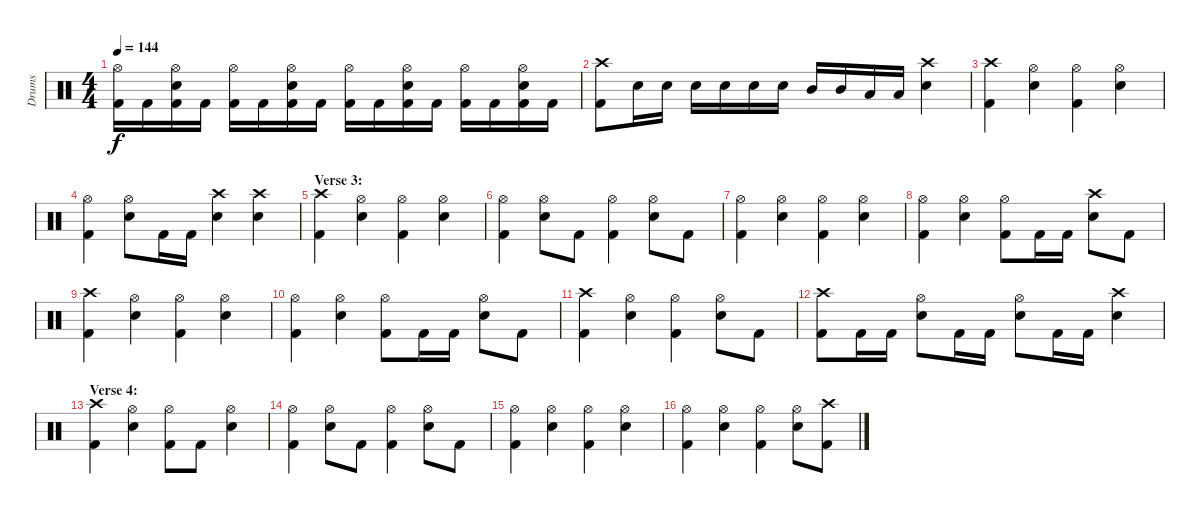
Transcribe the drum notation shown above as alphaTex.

\track ("Drums" "Drums") {instrument percussion}
\staff {score}
\articulation defaults
\ts (4 4)
\tempo 144
\clef neutral
\ks c
("Hi-Hat (open)" "Kick (hit) 2").16{dy f} "Kick (hit) 2".16 ("Hi-Hat (open)" "Snare (hit) 2" "Kick (hit) 2").16 "Kick (hit) 2".16 ("Hi-Hat (open)" "Kick (hit) 2").16 "Kick (hit) 2".16 ("Hi-Hat (open)" "Snare (hit) 2" "Kick (hit) 2").16 "Kick (hit) 2".16 ("Hi-Hat (open)" "Kick (hit) 2").16 "Kick (hit) 2".16 ("Hi-Hat (open)" "Snare (hit) 2" "Kick (hit) 2").16 "Kick (hit) 2".16 ("Hi-Hat (open)" "Kick (hit) 2").16 "Kick (hit) 2".16 ("Hi-Hat (open)" "Snare (hit) 2" "Kick (hit) 2").16 "Kick (hit) 2".16 |
("Crash high (hit)" "Kick (hit) 2").8 "Snare (hit) 2".16 "Snare (hit) 2".16 "Snare (hit) 2".16 "Snare (hit) 2".16 "Snare (hit) 2".16 "Snare (hit) 2".16 "Mid Tom (hit)".16 "Mid Tom (hit)".16 "Low Tom (hit)".16 "Low Tom (hit)".16 ("Crash high (hit)" "Snare (hit) 2").4 |
("Crash high (hit)" "Kick (hit) 2").4 ("Hi-Hat (open)" "Snare (hit) 2").4 ("Hi-Hat (open)" "Kick (hit) 2").4 ("Hi-Hat (open)" "Snare (hit) 2").4 |
("Hi-Hat (open)" "Kick (hit) 2").4 ("Hi-Hat (open)" "Snare (hit) 2").8 "Kick (hit) 2".16 "Kick (hit) 2".16 ("Crash high (hit)" "Snare (hit) 2").4 ("Crash high (hit)" "Snare (hit) 2").4 |
\section ("" "Verse 3:")
("Crash high (hit)" "Kick (hit) 2").4 ("Hi-Hat (open)" "Snare (hit) 2").4 ("Hi-Hat (open)" "Kick (hit) 2").4 ("Hi-Hat (open)" "Snare (hit) 2").4 |
("Hi-Hat (open)" "Kick (hit) 2").4 ("Hi-Hat (open)" "Snare (hit) 2").8 "Kick (hit) 2".8 ("Hi-Hat (open)" "Kick (hit) 2").4 ("Hi-Hat (open)" "Snare (hit) 2").8 "Kick (hit) 2".8 |
("Hi-Hat (open)" "Kick (hit) 2").4 ("Hi-Hat (open)" "Snare (hit) 2").4 ("Hi-Hat (open)" "Kick (hit) 2").4 ("Hi-Hat (open)" "Snare (hit) 2").4 |
("Hi-Hat (open)" "Kick (hit) 2").4 ("Hi-Hat (open)" "Snare (hit) 2").4 ("Hi-Hat (open)" "Kick (hit) 2").8 "Kick (hit) 2".16 "Kick (hit) 2".16 ("Crash high (hit)" "Snare (hit) 2").8 "Kick (hit) 2".8 |
("Crash high (hit)" "Kick (hit) 2").4 ("Hi-Hat (open)" "Snare (hit) 2").4 ("Hi-Hat (open)" "Kick (hit) 2").4 ("Hi-Hat (open)" "Snare (hit) 2").4 |
("Hi-Hat (open)" "Kick (hit) 2").4 ("Hi-Hat (open)" "Snare (hit) 2").4 ("Hi-Hat (open)" "Kick (hit) 2").8 "Kick (hit) 2".16 "Kick (hit) 2".16 ("Hi-Hat (open)" "Snare (hit) 2").8 "Kick (hit) 2".8 |
("Crash high (hit)" "Kick (hit) 2").4 ("Hi-Hat (open)" "Snare (hit) 2").4 ("Hi-Hat (open)" "Kick (hit) 2").4 ("Hi-Hat (open)" "Snare (hit) 2").8 "Kick (hit) 2".8 |
("Crash high (hit)" "Kick (hit) 2").8 "Kick (hit) 2".16 "Kick (hit) 2".16 ("Hi-Hat (open)" "Snare (hit) 2").8 "Kick (hit) 2".16 "Kick (hit) 2".16 ("Hi-Hat (open)" "Snare (hit) 2").8 "Kick (hit) 2".16 "Kick (hit) 2".16 ("Crash high (hit)" "Snare (hit) 2").4 |
\section ("" "Verse 4:")
("Crash high (hit)" "Kick (hit) 2").4 ("Hi-Hat (open)" "Snare (hit) 2").4 ("Hi-Hat (open)" "Kick (hit) 2").8 "Kick (hit) 2".8 ("Hi-Hat (open)" "Snare (hit) 2").4 |
("Hi-Hat (open)" "Kick (hit) 2").4 ("Hi-Hat (open)" "Snare (hit) 2").8 "Kick (hit) 2".8 ("Hi-Hat (open)" "Kick (hit) 2").4 ("Hi-Hat (open)" "Snare (hit) 2").8 "Kick (hit) 2".8 |
("Hi-Hat (open)" "Kick (hit) 2").4 ("Hi-Hat (open)" "Snare (hit) 2").4 ("Hi-Hat (open)" "Kick (hit) 2").4 ("Hi-Hat (open)" "Snare (hit) 2").4 |
("Hi-Hat (open)" "Kick (hit) 2").4 ("Hi-Hat (open)" "Snare (hit) 2").4 ("Hi-Hat (open)" "Kick (hit) 2").4 ("Hi-Hat (open)" "Snare (hit) 2").8 ("Crash high (hit)" "Kick (hit) 2").8
